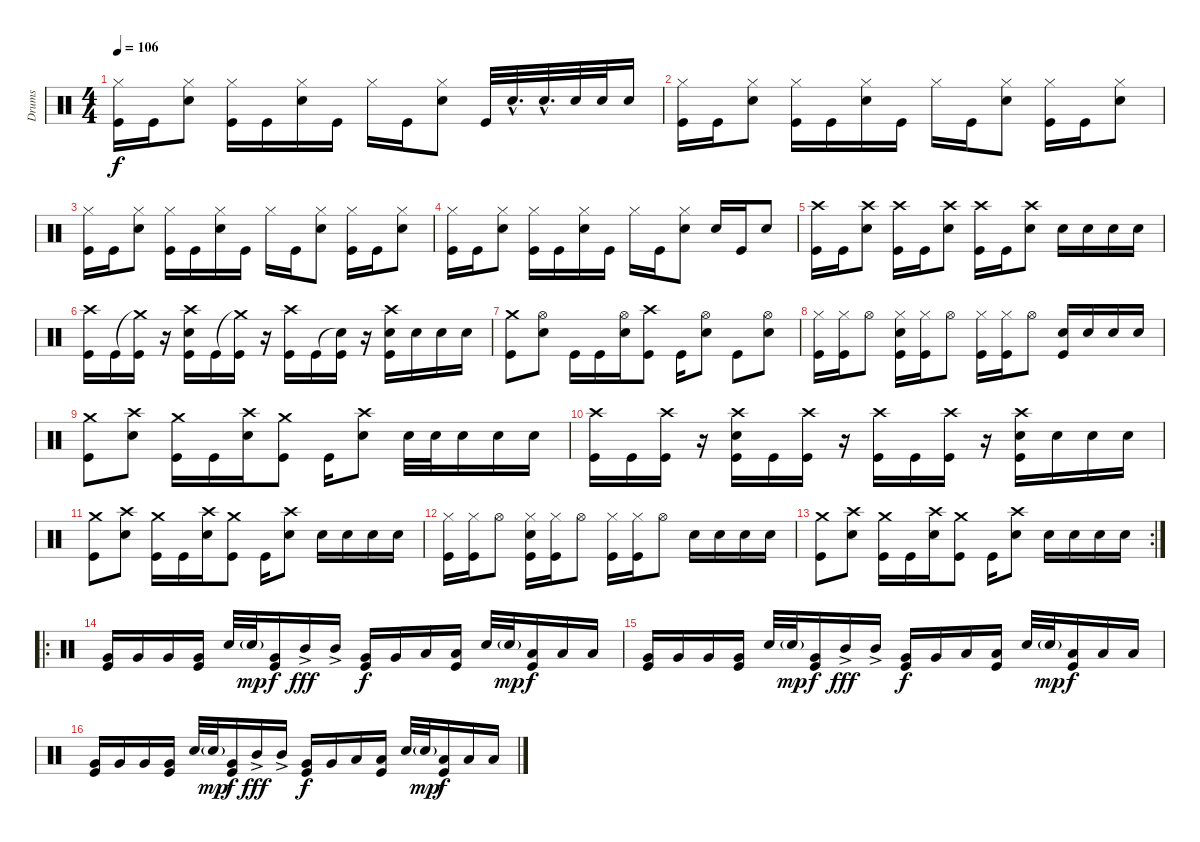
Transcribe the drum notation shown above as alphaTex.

\track ("Drums" "Drums") {instrument percussion}
\staff {score}
\articulation defaults
\ts (4 4)
\tempo 106
\clef neutral
\ks c
("Hi-Hat (closed)" "Kick (hit)").16{dy f} "Kick (hit)".16 ("Hi-Hat (closed)" "Snare (hit) 2").8 ("Hi-Hat (closed)" "Kick (hit)").16 "Kick (hit)".16 ("Hi-Hat (closed)" "Snare (hit) 2").16 "Kick (hit)".16 "Hi-Hat (closed)".16 "Kick (hit)".16 ("Hi-Hat (closed)" "Snare (hit) 2").8 "Kick (hit)".32 "Snare (hit) 2"{hac}.32{d} "Snare (hit) 2"{hac}.32{d} "Snare (hit) 2".32 "Snare (hit) 2".32 "Snare (hit) 2".16 |
("Hi-Hat (closed)" "Kick (hit)").16 "Kick (hit)".16 ("Hi-Hat (closed)" "Snare (hit) 2").8 ("Hi-Hat (closed)" "Kick (hit)").16 "Kick (hit)".16 ("Hi-Hat (closed)" "Snare (hit) 2").16 "Kick (hit)".16 "Hi-Hat (closed)".16 "Kick (hit)".16 ("Hi-Hat (closed)" "Snare (hit) 2").8 ("Hi-Hat (closed)" "Kick (hit)").16 "Kick (hit)".16 ("Hi-Hat (closed)" "Snare (hit) 2").8 |
("Hi-Hat (closed)" "Kick (hit)").16 "Kick (hit)".16 ("Hi-Hat (closed)" "Snare (hit) 2").8 ("Hi-Hat (closed)" "Kick (hit)").16 "Kick (hit)".16 ("Hi-Hat (closed)" "Snare (hit) 2").16 "Kick (hit)".16 "Hi-Hat (closed)".16 "Kick (hit)".16 ("Hi-Hat (closed)" "Snare (hit) 2").8 ("Hi-Hat (closed)" "Kick (hit)").16 "Kick (hit)".16 ("Hi-Hat (closed)" "Snare (hit) 2").8 |
("Hi-Hat (closed)" "Kick (hit)").16 "Kick (hit)".16 ("Hi-Hat (closed)" "Snare (hit) 2").8 ("Hi-Hat (closed)" "Kick (hit)").16 "Kick (hit)".16 ("Hi-Hat (closed)" "Snare (hit) 2").16 "Kick (hit)".16 "Hi-Hat (closed)".16 "Kick (hit)".16 ("Hi-Hat (closed)" "Snare (hit) 2").8 "Snare (hit) 2".16 "Kick (hit)".16 "Snare (hit) 2".8 |
("Crash high (hit)" "Kick (hit)").16 "Kick (hit)".16 ("Crash high (hit)" "Snare (hit) 2").8 ("Crash high (hit)" "Kick (hit)").16 "Kick (hit)".16 ("Crash high (hit)" "Snare (hit) 2").8 ("Crash high (hit)" "Kick (hit)").16 "Kick (hit)".16 ("Crash high (hit)" "Snare (hit) 2").8 "Snare (hit) 2".16 "Snare (hit) 2".16 "Snare (hit) 2".16 "Snare (hit) 2".16 |
("Crash high (hit)" "Kick (hit)").16 "Kick (hit)".16 ("Crash medium (hit)"{t} "Kick (hit)").16 r.16 ("Crash high (hit)" "Snare (hit) 2" "Kick (hit)").16 "Kick (hit)".16 ("Crash medium (hit)"{t} "Kick (hit)").16 r.16 ("Crash high (hit)" "Kick (hit)").16 "Kick (hit)".16 ("Snare (hit)"{t} "Kick (hit)").16 r.16 ("Crash high (hit)" "Snare (hit) 2" "Kick (hit)").16 "Snare (hit) 2".16 "Snare (hit) 2".16 "Snare (hit) 2".16 |
("Crash medium (hit)" "Kick (hit)").8 ("Hi-Hat (open)" "Snare (hit) 2").8 "Kick (hit)".16 "Kick (hit)".16 ("Hi-Hat (open)" "Snare (hit) 2").16 ("Crash high (hit)" "Kick (hit)").8 "Kick (hit)".16 ("Hi-Hat (open)" "Snare (hit) 2").8 "Kick (hit)".8 ("Hi-Hat (open)" "Snare (hit) 2").8 |
("Hi-Hat (closed)" "Kick (hit)").16 ("Hi-Hat (closed)" "Kick (hit)").16 "Hi-Hat (open)".8 ("Hi-Hat (closed)" "Snare (hit) 2" "Kick (hit)").16 ("Hi-Hat (closed)" "Kick (hit)").16 "Hi-Hat (open)".8 ("Hi-Hat (closed)" "Kick (hit)").16 ("Hi-Hat (closed)" "Kick (hit)").16 "Hi-Hat (open)".8 ("Snare (hit) 2" "Kick (hit)").16 "Snare (hit) 2".16 "Snare (hit) 2".16 "Snare (hit) 2".16 |
("Crash medium (hit)" "Kick (hit)").8 ("Crash high (hit)" "Snare (hit) 2").8 ("Crash medium (hit)" "Kick (hit)").16 "Kick (hit)".16 ("Crash high (hit)" "Snare (hit) 2").16 ("Crash medium (hit)" "Kick (hit)").8 "Kick (hit)".16 ("Crash high (hit)" "Snare (hit) 2").8 "Snare (hit) 2".32 "Snare (hit) 2".32 "Snare (hit) 2".16 "Snare (hit) 2".16 "Snare (hit) 2".16 |
("Crash high (hit)" "Kick (hit)").16 "Kick (hit)".16 ("Crash high (hit)" "Kick (hit)").16 r.16 ("Crash high (hit)" "Snare (hit) 2" "Kick (hit)").16 "Kick (hit)".16 ("Crash high (hit)" "Kick (hit)").16 r.16 ("Crash high (hit)" "Kick (hit)").16 "Kick (hit)".16 ("Crash high (hit)" "Kick (hit)").16 r.16 ("Crash high (hit)" "Snare (hit) 2" "Kick (hit)").16 "Snare (hit) 2".16 "Snare (hit) 2".16 "Snare (hit) 2".16 |
("Crash medium (hit)" "Kick (hit)").8 ("Crash high (hit)" "Snare (hit) 2").8 ("Crash medium (hit)" "Kick (hit)").16 "Kick (hit)".16 ("Crash high (hit)" "Snare (hit) 2").16 ("Crash medium (hit)" "Kick (hit)").8 "Kick (hit)".16 ("Crash high (hit)" "Snare (hit) 2").8 "Snare (hit) 2".16 "Snare (hit) 2".16 "Snare (hit) 2".16 "Snare (hit) 2".16 |
("Hi-Hat (closed)" "Kick (hit)").16 ("Hi-Hat (closed)" "Kick (hit)").16 "Hi-Hat (open)".8 ("Hi-Hat (closed)" "Snare (hit) 2" "Kick (hit)").16 ("Hi-Hat (closed)" "Kick (hit)").16 "Hi-Hat (open)".8 ("Hi-Hat (closed)" "Kick (hit)").16 ("Hi-Hat (closed)" "Kick (hit)").16 "Hi-Hat (open)".8 "Snare (hit) 2".16 "Snare (hit) 2".16 "Snare (hit) 2".16 "Snare (hit) 2".16 |
\rc 2
("Crash medium (hit)" "Kick (hit)").8 ("Crash high (hit)" "Snare (hit) 2").8 ("Crash medium (hit)" "Kick (hit)").16 "Kick (hit)".16 ("Crash high (hit)" "Snare (hit) 2").16 ("Crash medium (hit)" "Kick (hit)").8 "Kick (hit)".16 ("Crash high (hit)" "Snare (hit) 2").8 "Snare (hit) 2".16 "Snare (hit) 2".16 "Snare (hit) 2".16 "Snare (hit) 2".16 |
\ro
("Very Low Tom (hit)" "Kick (hit)").16 "Very Low Tom (hit)".16 "Very Low Tom (hit)".16 ("Very Low Tom (hit)" "Kick (hit)").16 "Snare (hit) 2".32 "Snare (hit) 2"{g}.32{dy mp} ("Very Low Tom (hit)" "Kick (hit)").16{dy f} "Mid Tom (hit)"{ac}.16{dy fff} "Mid Tom (hit)"{ac}.16 ("Very Low Tom (hit)" "Kick (hit)").16{dy f} "Very Low Tom (hit)".16 "Low Floor Tom (hit)".16 ("Low Floor Tom (hit)" "Kick (hit)").16 "Snare (hit) 2".32 "Snare (hit) 2"{g}.32{dy mp} ("Low Floor Tom (hit)" "Kick (hit)").16{dy f} "Low Floor Tom (hit)".16 "Low Floor Tom (hit)".16 |
("Very Low Tom (hit)" "Kick (hit)").16 "Very Low Tom (hit)".16 "Very Low Tom (hit)".16 ("Very Low Tom (hit)" "Kick (hit)").16 "Snare (hit) 2".32 "Snare (hit) 2"{g}.32{dy mp} ("Very Low Tom (hit)" "Kick (hit)").16{dy f} "Mid Tom (hit)"{ac}.16{dy fff} "Mid Tom (hit)"{ac}.16 ("Very Low Tom (hit)" "Kick (hit)").16{dy f} "Very Low Tom (hit)".16 "Low Floor Tom (hit)".16 ("Low Floor Tom (hit)" "Kick (hit)").16 "Snare (hit) 2".32 "Snare (hit) 2"{g}.32{dy mp} ("Low Floor Tom (hit)" "Kick (hit)").16{dy f} "Low Floor Tom (hit)".16 "Low Floor Tom (hit)".16 |
("Very Low Tom (hit)" "Kick (hit)").16 "Very Low Tom (hit)".16 "Very Low Tom (hit)".16 ("Very Low Tom (hit)" "Kick (hit)").16 "Snare (hit) 2".32 "Snare (hit) 2"{g}.32{dy mp} ("Very Low Tom (hit)" "Kick (hit)").16{dy f} "Mid Tom (hit)"{ac}.16{dy fff} "Mid Tom (hit)"{ac}.16 ("Very Low Tom (hit)" "Kick (hit)").16{dy f} "Very Low Tom (hit)".16 "Low Floor Tom (hit)".16 ("Low Floor Tom (hit)" "Kick (hit)").16 "Snare (hit) 2".32 "Snare (hit) 2"{g}.32{dy mp} ("Low Floor Tom (hit)" "Kick (hit)").16{dy f} "Low Floor Tom (hit)".16 "Low Floor Tom (hit)".16
